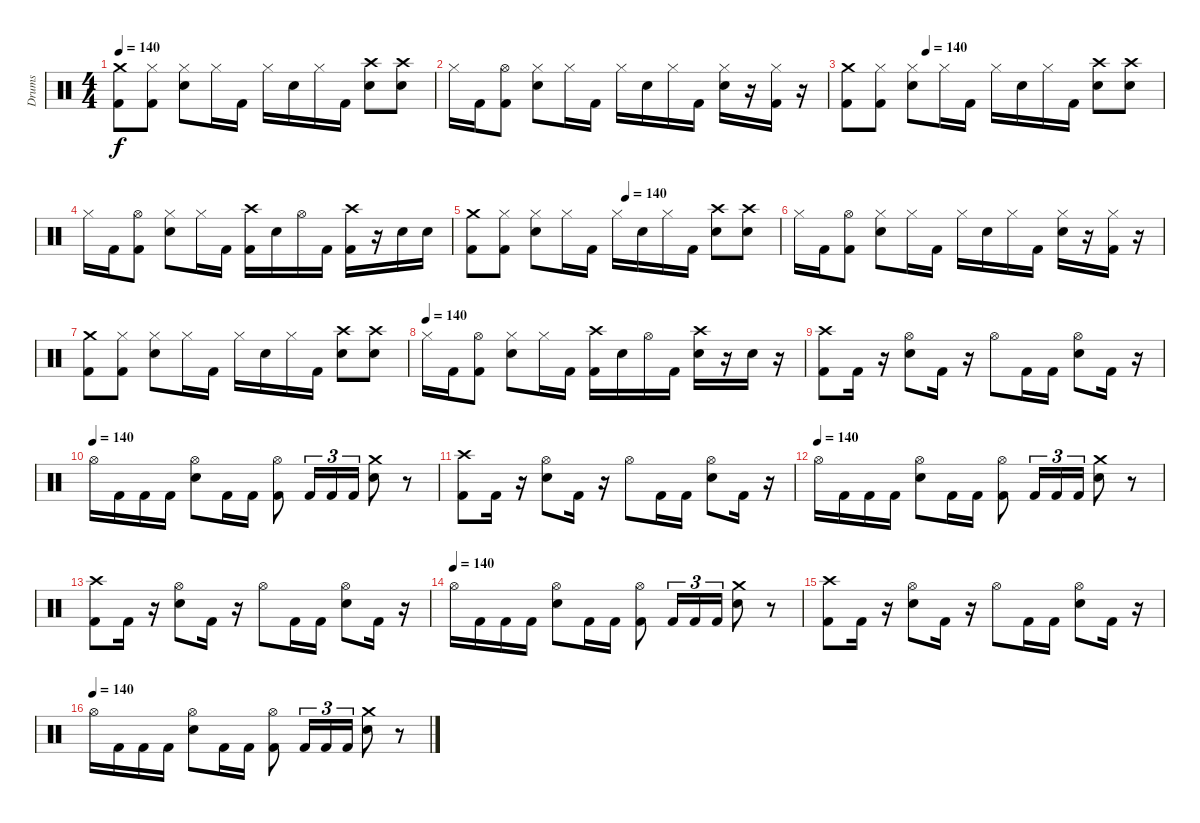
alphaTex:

\track ("Drums" "Drums") {instrument percussion}
\staff {score}
\articulation defaults
\ts (4 4)
\tempo 140
\clef neutral
\ks c
("Kick (hit) 2" "Crash medium (hit)").8{dy f} ("Kick (hit) 2" "Hi-Hat (closed)").8 ("Electric Snare (hit)" "Hi-Hat (closed)").8 "Hi-Hat (closed)".16 "Kick (hit) 2".16 "Hi-Hat (closed)".16 "Electric Snare (hit)".16 "Hi-Hat (closed)".16 "Kick (hit) 2".16 ("Electric Snare (hit)" "Crash high (hit)").8 ("Electric Snare (hit)" "Crash high (hit)").8 |
"Hi-Hat (closed)".16 "Kick (hit) 2".16 ("Kick (hit) 2" "Hi-Hat (open)").8 ("Electric Snare (hit)" "Hi-Hat (closed)").8 "Hi-Hat (closed)".16 "Kick (hit) 2".16 "Hi-Hat (closed)".16 "Electric Snare (hit)".16 "Hi-Hat (closed)".16 "Kick (hit) 2".16 ("Hi-Hat (closed)" "Electric Snare (hit)").16 r.16 ("Hi-Hat (closed)" "Kick (hit) 2").16 r.16 |
\tempo (140 0.25)
("Kick (hit) 2" "Crash medium (hit)").8 ("Kick (hit) 2" "Hi-Hat (closed)").8 ("Electric Snare (hit)" "Hi-Hat (closed)").8 "Hi-Hat (closed)".16 "Kick (hit) 2".16 "Hi-Hat (closed)".16 "Electric Snare (hit)".16 "Hi-Hat (closed)".16 "Kick (hit) 2".16 ("Electric Snare (hit)" "Crash high (hit)").8 ("Electric Snare (hit)" "Crash high (hit)").8 |
"Hi-Hat (closed)".16 "Kick (hit) 2".16 ("Kick (hit) 2" "Hi-Hat (open)").8 ("Electric Snare (hit)" "Hi-Hat (closed)").8 "Hi-Hat (closed)".16 "Kick (hit) 2".16 ("Kick (hit) 2" "Crash high (hit)").16 "Electric Snare (hit)".16 "Hi-Hat (open)".16 "Kick (hit) 2".16 ("Kick (hit) 2" "Crash high (hit)").16 r.16 "Electric Snare (hit)".16 "Electric Snare (hit)".16 |
\tempo (140 0.5)
("Kick (hit) 2" "Crash medium (hit)").8 ("Kick (hit) 2" "Hi-Hat (closed)").8 ("Electric Snare (hit)" "Hi-Hat (closed)").8 "Hi-Hat (closed)".16 "Kick (hit) 2".16 "Hi-Hat (closed)".16 "Electric Snare (hit)".16 "Hi-Hat (closed)".16 "Kick (hit) 2".16 ("Electric Snare (hit)" "Crash high (hit)").8 ("Electric Snare (hit)" "Crash high (hit)").8 |
"Hi-Hat (closed)".16 "Kick (hit) 2".16 ("Kick (hit) 2" "Hi-Hat (open)").8 ("Electric Snare (hit)" "Hi-Hat (closed)").8 "Hi-Hat (closed)".16 "Kick (hit) 2".16 "Hi-Hat (closed)".16 "Electric Snare (hit)".16 "Hi-Hat (closed)".16 "Kick (hit) 2".16 ("Hi-Hat (closed)" "Electric Snare (hit)").16 r.16 ("Hi-Hat (closed)" "Kick (hit) 2").16 r.16 |
("Kick (hit) 2" "Crash medium (hit)").8 ("Kick (hit) 2" "Hi-Hat (closed)").8 ("Electric Snare (hit)" "Hi-Hat (closed)").8 "Hi-Hat (closed)".16 "Kick (hit) 2".16 "Hi-Hat (closed)".16 "Electric Snare (hit)".16 "Hi-Hat (closed)".16 "Kick (hit) 2".16 ("Electric Snare (hit)" "Crash high (hit)").8 ("Electric Snare (hit)" "Crash high (hit)").8 |
\tempo (140)
"Hi-Hat (closed)".16 "Kick (hit) 2".16 ("Kick (hit) 2" "Hi-Hat (open)").8 ("Electric Snare (hit)" "Hi-Hat (closed)").8 "Hi-Hat (closed)".16 "Kick (hit) 2".16 ("Kick (hit) 2" "Crash high (hit)").16 "Electric Snare (hit)".16 "Hi-Hat (open)".16 "Kick (hit) 2".16 ("Electric Snare (hit)" "Crash high (hit)").16 r.16 "Electric Snare (hit)".16 r.16 |
("Kick (hit) 2" "Crash high (hit)").8 "Kick (hit) 2".16 r.16 ("Electric Snare (hit)" "Hi-Hat (open)").8 "Kick (hit) 2".16 r.16 "Hi-Hat (open)".8 "Kick (hit) 2".16 "Kick (hit) 2".16 ("Electric Snare (hit)" "Hi-Hat (open)").8 "Kick (hit) 2".16 r.16 |
\tempo (140)
"Hi-Hat (open)".16 "Kick (hit) 2".16 "Kick (hit) 2".16 "Kick (hit) 2".16 ("Electric Snare (hit)" "Hi-Hat (open)").8 "Kick (hit) 2".16 "Kick (hit) 2".16 ("Kick (hit) 2" "Hi-Hat (open)").8 "Kick (hit) 2".16{tu (3 2)} "Kick (hit) 2".16{tu (3 2)} "Kick (hit) 2".16{tu (3 2)} ("Electric Snare (hit)" "Crash medium (hit)").8 r.8 |
("Kick (hit) 2" "Crash high (hit)").8 "Kick (hit) 2".16 r.16 ("Electric Snare (hit)" "Hi-Hat (open)").8 "Kick (hit) 2".16 r.16 "Hi-Hat (open)".8 "Kick (hit) 2".16 "Kick (hit) 2".16 ("Electric Snare (hit)" "Hi-Hat (open)").8 "Kick (hit) 2".16 r.16 |
\tempo (140)
"Hi-Hat (open)".16 "Kick (hit) 2".16 "Kick (hit) 2".16 "Kick (hit) 2".16 ("Electric Snare (hit)" "Hi-Hat (open)").8 "Kick (hit) 2".16 "Kick (hit) 2".16 ("Kick (hit) 2" "Hi-Hat (open)").8 "Kick (hit) 2".16{tu (3 2)} "Kick (hit) 2".16{tu (3 2)} "Kick (hit) 2".16{tu (3 2)} ("Electric Snare (hit)" "Crash medium (hit)").8 r.8 |
("Kick (hit) 2" "Crash high (hit)").8 "Kick (hit) 2".16 r.16 ("Electric Snare (hit)" "Hi-Hat (open)").8 "Kick (hit) 2".16 r.16 "Hi-Hat (open)".8 "Kick (hit) 2".16 "Kick (hit) 2".16 ("Electric Snare (hit)" "Hi-Hat (open)").8 "Kick (hit) 2".16 r.16 |
\tempo (140)
"Hi-Hat (open)".16 "Kick (hit) 2".16 "Kick (hit) 2".16 "Kick (hit) 2".16 ("Electric Snare (hit)" "Hi-Hat (open)").8 "Kick (hit) 2".16 "Kick (hit) 2".16 ("Kick (hit) 2" "Hi-Hat (open)").8 "Kick (hit) 2".16{tu (3 2)} "Kick (hit) 2".16{tu (3 2)} "Kick (hit) 2".16{tu (3 2)} ("Electric Snare (hit)" "Crash medium (hit)").8 r.8 |
("Kick (hit) 2" "Crash high (hit)").8 "Kick (hit) 2".16 r.16 ("Electric Snare (hit)" "Hi-Hat (open)").8 "Kick (hit) 2".16 r.16 "Hi-Hat (open)".8 "Kick (hit) 2".16 "Kick (hit) 2".16 ("Electric Snare (hit)" "Hi-Hat (open)").8 "Kick (hit) 2".16 r.16 |
\tempo (140)
"Hi-Hat (open)".16 "Kick (hit) 2".16 "Kick (hit) 2".16 "Kick (hit) 2".16 ("Electric Snare (hit)" "Hi-Hat (open)").8 "Kick (hit) 2".16 "Kick (hit) 2".16 ("Kick (hit) 2" "Hi-Hat (open)").8 "Kick (hit) 2".16{tu (3 2)} "Kick (hit) 2".16{tu (3 2)} "Kick (hit) 2".16{tu (3 2)} ("Electric Snare (hit)" "Crash medium (hit)").8 r.8
